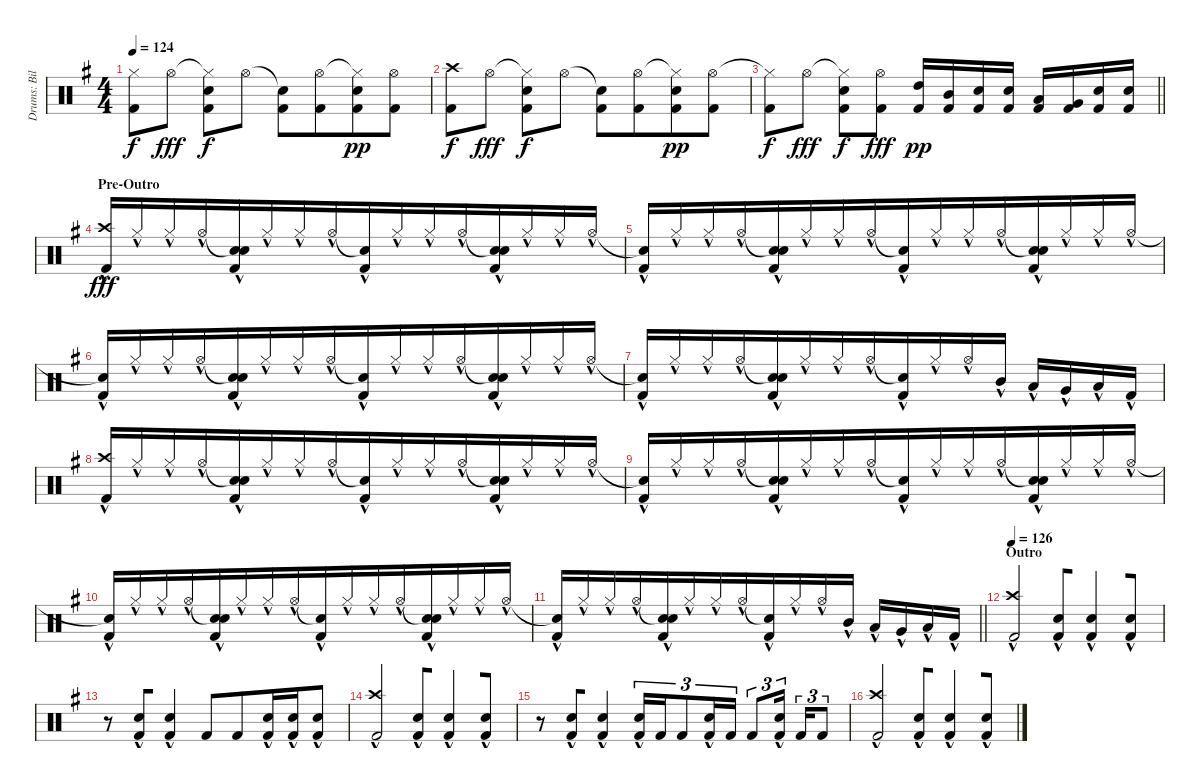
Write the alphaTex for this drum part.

\track ("Drums: Bill" "Drums: Bil") {instrument percussion}
\staff {score}
\articulation defaults
\ts (4 4)
\tempo 124
\clef neutral
\ks g
("Hi-Hat (closed)"{t} "Kick (hit) 2").8{dy f} "Hi-Hat (open)".8{dy fff} ("Hi-Hat (closed)"{t} "Electric Snare (hit)" "Kick (hit) 2").8{dy f} "Hi-Hat (open)".8 ("Snare (hit)"{t} "Kick (hit) 2").8 ("Hi-Hat (open)" "Kick (hit) 2").8{beam merge} ("Hi-Hat (closed)"{t} "Electric Snare (hit)" "Kick (hit) 2").8{dy pp} ("Hi-Hat (open)" "Kick (hit) 2").8 |
("Crash high (hit)" "Kick (hit) 2").8{dy f} "Hi-Hat (open)".8{dy fff} ("Hi-Hat (closed)"{t} "Electric Snare (hit)" "Kick (hit) 2").8{dy f} "Hi-Hat (open)".8 ("Snare (hit)"{t} "Kick (hit) 2").8 ("Hi-Hat (open)" "Kick (hit) 2").8{beam merge} ("Hi-Hat (closed)"{t} "Electric Snare (hit)" "Kick (hit) 2").8{dy pp} ("Hi-Hat (open)" "Kick (hit) 2").8 |
\barLineRight lightlight
("Hi-Hat (closed)"{t} "Kick (hit) 2").8{dy f} "Hi-Hat (open)".8{dy fff} ("Hi-Hat (closed)"{t} "Electric Snare (hit)" "Kick (hit) 2").8{dy f} ("Hi-Hat (open)" "Kick (hit) 2").8{dy fff} ("High Tom (hit)" "Kick (hit) 2").16{dy pp} ("Mid Tom (hit)" "Kick (hit) 2").16 ("Electric Snare (hit)" "Kick (hit) 2").16 ("Electric Snare (hit)" "Kick (hit) 2").16 ("Low Tom (hit)" "Kick (hit) 2").16 ("Very Low Tom (hit)" "Kick (hit) 2").16 ("Electric Snare (hit)" "Kick (hit) 2").16 ("Electric Snare (hit)" "Kick (hit) 2").16 |
\section ("" "Pre-Outro")
("Crash high (hit)"{hac} "Kick (hit) 2"{hac}).16{dy fff beam Up beam merge} "Hi-Hat (closed)"{hac}.16{beam Up beam merge} "Hi-Hat (closed)"{hac}.16{beam Up beam merge} "Hi-Hat (open)"{hac}.16{beam Up beam merge} ("Snare (hit)"{t} "Electric Snare (hit)"{hac} "Kick (hit) 2"{hac}).16{beam Up beam merge} "Hi-Hat (closed)"{hac}.16{beam Up beam merge} "Hi-Hat (closed)"{hac}.16{beam Up beam merge} "Hi-Hat (open)"{hac}.16{beam Up beam merge} ("Snare (hit)"{t} "Kick (hit) 2"{hac}).16{beam Up beam merge} "Hi-Hat (closed)"{hac}.16{beam Up beam merge} "Hi-Hat (closed)"{hac}.16{beam Up beam merge} "Hi-Hat (open)"{hac}.16{beam Up beam merge} ("Snare (hit)"{t} "Electric Snare (hit)"{hac} "Kick (hit) 2"{hac}).16{beam Up beam merge} "Hi-Hat (closed)"{hac}.16{beam Up beam merge} "Hi-Hat (closed)"{hac}.16{beam Up beam merge} "Hi-Hat (open)"{hac}.16{beam Up} |
("Snare (hit)"{t} "Kick (hit) 2"{hac}).16{beam Up beam merge} "Hi-Hat (closed)"{hac}.16{beam Up beam merge} "Hi-Hat (closed)"{hac}.16{beam Up beam merge} "Hi-Hat (open)"{hac}.16{beam Up beam merge} ("Snare (hit)"{t} "Electric Snare (hit)"{hac} "Kick (hit) 2"{hac}).16{beam Up beam merge} "Hi-Hat (closed)"{hac}.16{beam Up beam merge} "Hi-Hat (closed)"{hac}.16{beam Up beam merge} "Hi-Hat (open)"{hac}.16{beam Up beam merge} ("Snare (hit)"{t} "Kick (hit) 2"{hac}).16{beam Up beam merge} "Hi-Hat (closed)"{hac}.16{beam Up beam merge} "Hi-Hat (closed)"{hac}.16{beam Up beam merge} "Hi-Hat (open)"{hac}.16{beam Up beam merge} ("Snare (hit)"{t} "Electric Snare (hit)" "Kick (hit) 2"{hac}).16{beam Up beam merge} "Hi-Hat (closed)"{hac}.16{beam Up beam merge} "Hi-Hat (closed)"{hac}.16{beam Up beam merge} "Hi-Hat (open)"{hac}.16{beam Up} |
("Snare (hit)"{t} "Kick (hit) 2"{hac}).16{beam Up beam merge} "Hi-Hat (closed)"{hac}.16{beam Up beam merge} "Hi-Hat (closed)"{hac}.16{beam Up beam merge} "Hi-Hat (open)"{hac}.16{beam Up beam merge} ("Snare (hit)"{t} "Electric Snare (hit)"{hac} "Kick (hit) 2"{hac}).16{beam Up beam merge} "Hi-Hat (closed)"{hac}.16{beam Up beam merge} "Hi-Hat (closed)"{hac}.16{beam Up beam merge} "Hi-Hat (open)"{hac}.16{beam Up beam merge} ("Snare (hit)"{t} "Kick (hit) 2"{hac}).16{beam Up beam merge} "Hi-Hat (closed)"{hac}.16{beam Up beam merge} "Hi-Hat (closed)"{hac}.16{beam Up beam merge} "Hi-Hat (open)"{hac}.16{beam Up beam merge} ("Snare (hit)"{t} "Electric Snare (hit)" "Kick (hit) 2"{hac}).16{beam Up beam merge} "Hi-Hat (closed)"{hac}.16{beam Up beam merge} "Hi-Hat (closed)"{hac}.16{beam Up beam merge} "Hi-Hat (open)"{hac}.16{beam Up} |
("Snare (hit)"{t} "Kick (hit) 2"{hac}).16{beam Up beam merge} "Hi-Hat (closed)"{hac}.16{beam Up beam merge} "Hi-Hat (closed)"{hac}.16{beam Up beam merge} "Hi-Hat (open)"{hac}.16{beam Up beam merge} ("Snare (hit)"{t} "Electric Snare (hit)"{hac} "Kick (hit) 2"{hac}).16{beam Up beam merge} "Hi-Hat (closed)"{hac}.16{beam Up beam merge} "Hi-Hat (closed)"{hac}.16{beam Up beam merge} "Hi-Hat (open)"{hac}.16{beam Up beam merge} ("Snare (hit)"{t} "Kick (hit) 2"{hac}).16{beam Up beam merge} "Hi-Hat (closed)"{hac}.16{beam Up beam merge} "Hi-Hat (open)"{hac}.16{beam Up} "Mid Tom (hit)"{hac}.16 "Low Tom (hit)"{hac}.16 "Very Low Tom (hit)"{hac}.16 "Low Floor Tom (hit)"{hac}.16 "Kick (hit) 2"{hac}.16 |
("Crash high (hit)"{hac} "Kick (hit) 2"{hac}).16{beam Up beam merge} "Hi-Hat (closed)"{hac}.16{beam Up beam merge} "Hi-Hat (closed)"{hac}.16{beam Up beam merge} "Hi-Hat (open)"{hac}.16{beam Up beam merge} ("Snare (hit)"{t} "Electric Snare (hit)"{hac} "Kick (hit) 2"{hac}).16{beam Up beam merge} "Hi-Hat (closed)"{hac}.16{beam Up beam merge} "Hi-Hat (closed)"{hac}.16{beam Up beam merge} "Hi-Hat (open)"{hac}.16{beam Up beam merge} ("Snare (hit)"{t} "Kick (hit) 2"{hac}).16{beam Up beam merge} "Hi-Hat (closed)"{hac}.16{beam Up beam merge} "Hi-Hat (closed)"{hac}.16{beam Up beam merge} "Hi-Hat (open)"{hac}.16{beam Up beam merge} ("Snare (hit)"{t} "Electric Snare (hit)"{hac} "Kick (hit) 2"{hac}).16{beam Up beam merge} "Hi-Hat (closed)"{hac}.16{beam Up beam merge} "Hi-Hat (closed)"{hac}.16{beam Up beam merge} "Hi-Hat (open)"{hac}.16{beam Up} |
("Snare (hit)"{t} "Kick (hit) 2"{hac}).16{beam Up beam merge} "Hi-Hat (closed)"{hac}.16{beam Up beam merge} "Hi-Hat (closed)"{hac}.16{beam Up beam merge} "Hi-Hat (open)"{hac}.16{beam Up beam merge} ("Snare (hit)"{t} "Electric Snare (hit)"{hac} "Kick (hit) 2"{hac}).16{beam Up beam merge} "Hi-Hat (closed)"{hac}.16{beam Up beam merge} "Hi-Hat (closed)"{hac}.16{beam Up beam merge} "Hi-Hat (open)"{hac}.16{beam Up beam merge} ("Snare (hit)"{t} "Kick (hit) 2"{hac}).16{beam Up beam merge} "Hi-Hat (closed)"{hac}.16{beam Up beam merge} "Hi-Hat (closed)"{hac}.16{beam Up beam merge} "Hi-Hat (open)"{hac}.16{beam Up beam merge} ("Snare (hit)"{t} "Electric Snare (hit)" "Kick (hit) 2"{hac}).16{beam Up beam merge} "Hi-Hat (closed)"{hac}.16{beam Up beam merge} "Hi-Hat (closed)"{hac}.16{beam Up beam merge} "Hi-Hat (open)"{hac}.16{beam Up} |
("Snare (hit)"{t} "Kick (hit) 2"{hac}).16{beam Up beam merge} "Hi-Hat (closed)"{hac}.16{beam Up beam merge} "Hi-Hat (closed)"{hac}.16{beam Up beam merge} "Hi-Hat (open)"{hac}.16{beam Up beam merge} ("Snare (hit)"{t} "Electric Snare (hit)"{hac} "Kick (hit) 2"{hac}).16{beam Up beam merge} "Hi-Hat (closed)"{hac}.16{beam Up beam merge} "Hi-Hat (closed)"{hac}.16{beam Up beam merge} "Hi-Hat (open)"{hac}.16{beam Up beam merge} ("Snare (hit)"{t} "Kick (hit) 2"{hac}).16{beam Up beam merge} "Hi-Hat (closed)"{hac}.16{beam Up beam merge} "Hi-Hat (closed)"{hac}.16{beam Up beam merge} "Hi-Hat (open)"{hac}.16{beam Up beam merge} ("Snare (hit)"{t} "Electric Snare (hit)" "Kick (hit) 2"{hac}).16{beam Up beam merge} "Hi-Hat (closed)"{hac}.16{beam Up beam merge} "Hi-Hat (closed)"{hac}.16{beam Up beam merge} "Hi-Hat (open)"{hac}.16{beam Up} |
\barLineRight lightlight
("Snare (hit)"{t} "Kick (hit) 2"{hac}).16{beam Up beam merge} "Hi-Hat (closed)"{hac}.16{beam Up beam merge} "Hi-Hat (closed)"{hac}.16{beam Up beam merge} "Hi-Hat (open)"{hac}.16{beam Up beam merge} ("Snare (hit)"{t} "Electric Snare (hit)"{hac} "Kick (hit) 2"{hac}).16{beam Up beam merge} "Hi-Hat (closed)"{hac}.16{beam Up beam merge} "Hi-Hat (closed)"{hac}.16{beam Up beam merge} "Hi-Hat (open)"{hac}.16{beam Up beam merge} ("Snare (hit)"{t} "Kick (hit) 2"{hac}).16{beam Up beam merge} "Hi-Hat (closed)"{hac}.16{beam Up beam merge} "Hi-Hat (open)"{hac}.16{beam Up} "Mid Tom (hit)"{hac}.16 "Low Tom (hit)"{hac}.16 "Very Low Tom (hit)"{hac}.16 "Low Floor Tom (hit)"{hac}.16 "Kick (hit) 2"{hac}.16 |
\section ("" "Outro")
\tempo 126
("Crash high (hit)"{hac} "Kick (hit) 2"{hac}).2{beam Up beam merge} ("Electric Snare (hit)"{hac} "Kick (hit) 2"{hac}).8{beam Up beam merge} ("Electric Snare (hit)"{hac} "Kick (hit) 2"{hac}).4{beam Up beam merge} ("Electric Snare (hit)"{hac} "Kick (hit) 2"{hac}).8{beam Up} |
r.8{beam Up beam merge} ("Electric Snare (hit)"{hac} "Kick (hit) 2"{hac}).8{beam Up beam merge} ("Electric Snare (hit)"{hac} "Kick (hit) 2"{hac}).4{beam Up} "Kick (hit) 2".8 "Kick (hit) 2".8{beam merge} ("Electric Snare (hit)"{hac} "Kick (hit) 2"{hac}).16{beam Up beam merge} ("Electric Snare (hit)"{hac} "Kick (hit) 2"{hac}).16{beam Up beam merge} ("Electric Snare (hit)"{hac} "Kick (hit) 2"{hac}).8{beam Up} |
("Crash high (hit)"{hac} "Kick (hit) 2"{hac}).2{beam Up beam merge} ("Electric Snare (hit)"{hac} "Kick (hit) 2"{hac}).8{beam Up beam merge} ("Electric Snare (hit)"{hac} "Kick (hit) 2"{hac}).4{beam Up beam merge} ("Electric Snare (hit)"{hac} "Kick (hit) 2"{hac}).8{beam Up} |
r.8{beam Up beam merge} ("Electric Snare (hit)"{hac} "Kick (hit) 2"{hac}).8{beam Up beam merge} ("Electric Snare (hit)"{hac} "Kick (hit) 2"{hac}).4{beam Up beam merge} ("Electric Snare (hit)"{hac} "Kick (hit) 2"{hac}).16{tu (3 2) beam Up} "Kick (hit) 2".16{tu (3 2)} "Kick (hit) 2".8{tu (3 2) beam merge} ("Electric Snare (hit)"{hac} "Kick (hit) 2"{hac}).16{tu (3 2) beam Up} "Kick (hit) 2".16{tu (3 2)} "Kick (hit) 2".8{tu (3 2) beam merge} ("Electric Snare (hit)"{hac} "Kick (hit) 2"{hac}).16{tu (3 2) beam Up beam splitsecondary} "Kick (hit) 2".16{tu (3 2)} "Kick (hit) 2".8{tu (3 2)} |
("Crash high (hit)"{hac} "Kick (hit) 2"{hac}).2{beam Up beam merge} ("Electric Snare (hit)"{hac} "Kick (hit) 2"{hac}).8{beam Up beam merge} ("Electric Snare (hit)"{hac} "Kick (hit) 2"{hac}).4{beam Up beam merge} ("Electric Snare (hit)"{hac} "Kick (hit) 2"{hac}).8{beam Up}
